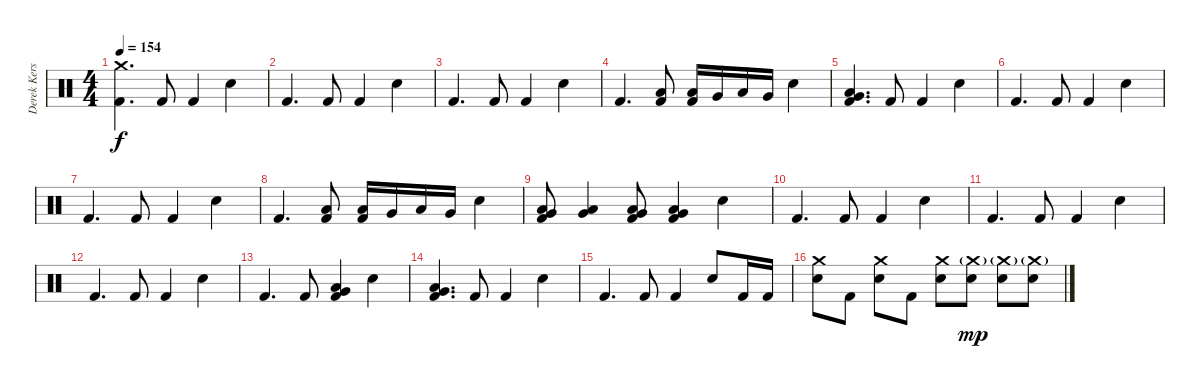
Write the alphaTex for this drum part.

\track ("Derek Kerswill" "Derek Kers") {instrument percussion}
\staff {score}
\articulation defaults
\ts (4 4)
\tempo 154
\clef neutral
\ks c
("Crash medium (hit)" "Kick (hit) 2").4{d dy f} "Kick (hit) 2".8 "Kick (hit) 2".4 "Electric Snare (hit)".4 |
"Kick (hit) 2".4{d} "Kick (hit) 2".8 "Kick (hit) 2".4 "Electric Snare (hit)".4 |
"Kick (hit) 2".4{d} "Kick (hit) 2".8 "Kick (hit) 2".4 "Electric Snare (hit)".4 |
"Kick (hit) 2".4{d} ("Low Floor Tom (hit)" "Kick (hit) 2").8 ("Low Tom (hit)" "Kick (hit) 2").16 "Very Low Tom (hit)".16 "Low Floor Tom (hit)".16 "Very Low Tom (hit)".16 "Electric Snare (hit)".4 |
("Very Low Tom (hit)" "Low Floor Tom (hit)" "Kick (hit) 2").4{d} "Kick (hit) 2".8 "Kick (hit) 2".4 "Electric Snare (hit)".4 |
"Kick (hit) 2".4{d} "Kick (hit) 2".8 "Kick (hit) 2".4 "Electric Snare (hit)".4 |
"Kick (hit) 2".4{d} "Kick (hit) 2".8 "Kick (hit) 2".4 "Electric Snare (hit)".4 |
"Kick (hit) 2".4{d} ("Low Floor Tom (hit)" "Kick (hit) 2").8 ("Low Tom (hit)" "Kick (hit) 2").16 "Very Low Tom (hit)".16 "Low Floor Tom (hit)".16 "Very Low Tom (hit)".16 "Electric Snare (hit)".4 |
("Very Low Tom (hit)" "Low Floor Tom (hit)" "Kick (hit) 2").8 ("Very Low Tom (hit)" "Low Floor Tom (hit)").4 ("Very Low Tom (hit)" "Low Floor Tom (hit)" "Kick (hit) 2").8 ("Very Low Tom (hit)" "Low Floor Tom (hit)" "Kick (hit) 2").4 "Electric Snare (hit)".4 |
"Kick (hit) 2".4{d} "Kick (hit) 2".8 "Kick (hit) 2".4 "Electric Snare (hit)".4 |
"Kick (hit) 2".4{d} "Kick (hit) 2".8 "Kick (hit) 2".4 "Electric Snare (hit)".4 |
"Kick (hit) 2".4{d} "Kick (hit) 2".8 "Kick (hit) 2".4 "Electric Snare (hit)".4 |
"Kick (hit) 2".4{d} "Kick (hit) 2".8 ("Very Low Tom (hit)" "Low Floor Tom (hit)" "Kick (hit) 2").4 "Electric Snare (hit)".4 |
("Very Low Tom (hit)" "Low Floor Tom (hit)" "Kick (hit) 2").4{d} "Kick (hit) 2".8 "Kick (hit) 2".4 "Electric Snare (hit)".4 |
"Kick (hit) 2".4{d} "Kick (hit) 2".8 "Kick (hit) 2".4 "Electric Snare (hit)".8 "Kick (hit) 2".16 "Kick (hit) 2".16 |
("Crash medium (hit)" "Electric Snare (hit)").8 "Kick (hit) 2".8 ("Crash medium (hit)" "Electric Snare (hit)").8 "Kick (hit) 2".8 ("Crash medium (hit)" "Electric Snare (hit)").8 ("Crash medium (hit)"{g} "Electric Snare (hit)").8{dy mp} ("Crash medium (hit)"{g} "Electric Snare (hit)").8 ("Crash medium (hit)"{g} "Electric Snare (hit)").8
